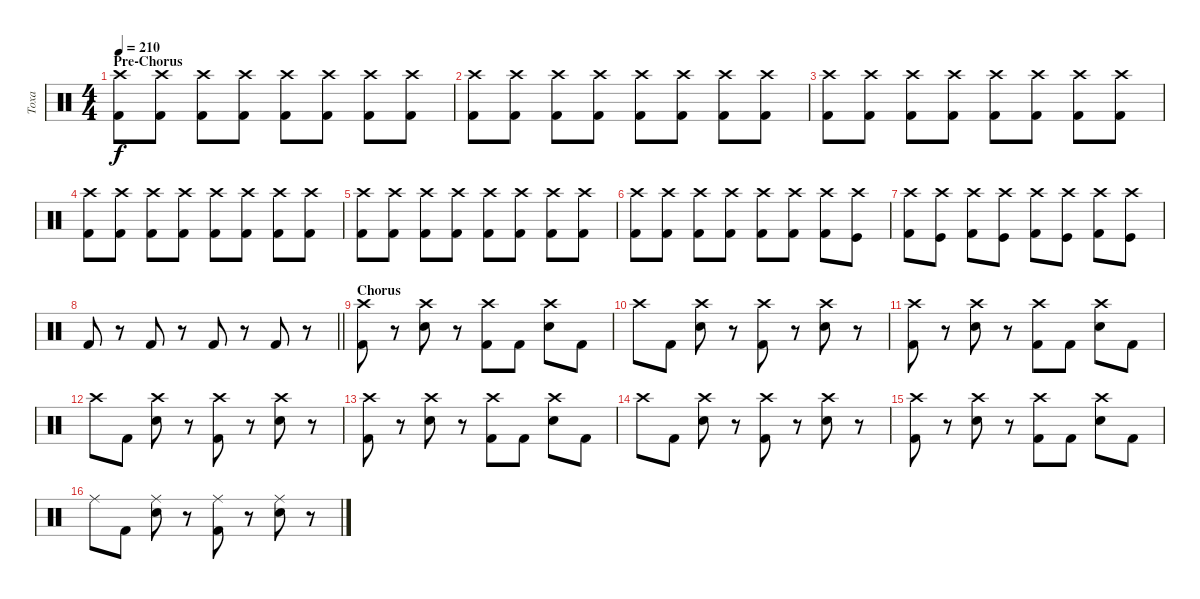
\track ("Toxa" "Toxa") {instrument percussion}
\staff {score}
\articulation defaults
\ts (4 4)
\section ("" "Pre-Chorus")
\tempo 210
\clef neutral
\ks c
("Kick (hit) 2" "Crash high (hit)").8{dy f} ("Crash high (hit)" "Kick (hit) 2").8 ("Crash high (hit)" "Kick (hit) 2").8 ("Crash high (hit)" "Kick (hit) 2").8 ("Crash high (hit)" "Kick (hit) 2").8 ("Crash high (hit)" "Kick (hit) 2").8 ("Crash high (hit)" "Kick (hit) 2").8 ("Crash high (hit)" "Kick (hit) 2").8 |
("Kick (hit) 2" "Crash high (hit)").8 ("Crash high (hit)" "Kick (hit) 2").8 ("Crash high (hit)" "Kick (hit) 2").8 ("Crash high (hit)" "Kick (hit) 2").8 ("Crash high (hit)" "Kick (hit) 2").8 ("Crash high (hit)" "Kick (hit) 2").8 ("Crash high (hit)" "Kick (hit) 2").8 ("Crash high (hit)" "Kick (hit) 2").8 |
("Kick (hit) 2" "Crash high (hit)").8 ("Crash high (hit)" "Kick (hit) 2").8 ("Crash high (hit)" "Kick (hit) 2").8 ("Crash high (hit)" "Kick (hit) 2").8 ("Crash high (hit)" "Kick (hit) 2").8 ("Crash high (hit)" "Kick (hit) 2").8 ("Crash high (hit)" "Kick (hit) 2").8 ("Crash high (hit)" "Kick (hit) 2").8 |
("Kick (hit) 2" "Crash high (hit)").8 ("Crash high (hit)" "Kick (hit) 2").8 ("Crash high (hit)" "Kick (hit) 2").8 ("Crash high (hit)" "Kick (hit) 2").8 ("Crash high (hit)" "Kick (hit) 2").8 ("Crash high (hit)" "Kick (hit) 2").8 ("Crash high (hit)" "Kick (hit) 2").8 ("Crash high (hit)" "Kick (hit) 2").8 |
("Kick (hit) 2" "Crash high (hit)").8 ("Crash high (hit)" "Kick (hit) 2").8 ("Crash high (hit)" "Kick (hit) 2").8 ("Crash high (hit)" "Kick (hit) 2").8 ("Crash high (hit)" "Kick (hit) 2").8 ("Crash high (hit)" "Kick (hit) 2").8 ("Crash high (hit)" "Kick (hit) 2").8 ("Crash high (hit)" "Kick (hit) 2").8 |
("Kick (hit) 2" "Crash high (hit)").8 ("Crash high (hit)" "Kick (hit) 2").8 ("Crash high (hit)" "Kick (hit) 2").8 ("Crash high (hit)" "Kick (hit) 2").8 ("Crash high (hit)" "Kick (hit) 2").8 ("Crash high (hit)" "Kick (hit) 2").8 ("Crash high (hit)" "Kick (hit) 2").8 ("Crash high (hit)" "Kick (hit)").8 |
("Kick (hit) 2" "Crash high (hit)").8 ("Crash high (hit)" "Kick (hit)").8 ("Crash high (hit)" "Kick (hit) 2").8 ("Crash high (hit)" "Kick (hit)").8 ("Crash high (hit)" "Kick (hit) 2").8 ("Crash high (hit)" "Kick (hit)").8 ("Crash high (hit)" "Kick (hit) 2").8 ("Crash high (hit)" "Kick (hit)").8 |
\barLineRight lightlight "Kick (hit) 2".8
r.8 "Kick (hit) 2".8 r.8 "Kick (hit) 2".8 r.8 "Kick (hit) 2".8 r.8 |
\section ("" "Chorus")
("Kick (hit) 2" "Crash high (hit)").8 r.8 ("Snare (hit) 2" "Crash high (hit)").8 r.8 ("Kick (hit) 2" "Crash high (hit)").8 "Kick (hit) 2".8 ("Snare (hit) 2" "Crash high (hit)").8 "Kick (hit) 2".8 |
"Crash high (hit)".8 "Kick (hit) 2".8 ("Snare (hit) 2" "Crash high (hit)").8 r.8 ("Kick (hit) 2" "Crash high (hit)").8 r.8 ("Snare (hit) 2" "Crash high (hit)").8 r.8 |
("Kick (hit) 2" "Crash high (hit)").8 r.8 ("Snare (hit) 2" "Crash high (hit)").8 r.8 ("Kick (hit) 2" "Crash high (hit)").8 "Kick (hit) 2".8 ("Snare (hit) 2" "Crash high (hit)").8 "Kick (hit) 2".8 |
"Crash high (hit)".8 "Kick (hit) 2".8 ("Snare (hit) 2" "Crash high (hit)").8 r.8 ("Kick (hit) 2" "Crash high (hit)").8 r.8 ("Snare (hit) 2" "Crash high (hit)").8 r.8 |
("Kick (hit) 2" "Crash high (hit)").8 r.8 ("Snare (hit) 2" "Crash high (hit)").8 r.8 ("Kick (hit) 2" "Crash high (hit)").8 "Kick (hit) 2".8 ("Snare (hit) 2" "Crash high (hit)").8 "Kick (hit) 2".8 |
"Crash high (hit)".8 "Kick (hit) 2".8 ("Snare (hit) 2" "Crash high (hit)").8 r.8 ("Kick (hit) 2" "Crash high (hit)").8 r.8 ("Snare (hit) 2" "Crash high (hit)").8 r.8 |
("Kick (hit) 2" "Crash high (hit)").8 r.8 ("Snare (hit) 2" "Crash high (hit)").8 r.8 ("Kick (hit) 2" "Crash high (hit)").8 "Kick (hit) 2".8 ("Snare (hit) 2" "Crash high (hit)").8 "Kick (hit) 2".8 |
"Ride (middle)".8 "Kick (hit) 2".8 ("Snare (hit) 2" "Ride (middle)").8 r.8 ("Kick (hit) 2" "Ride (middle)").8 r.8 ("Snare (hit) 2" "Ride (middle)").8 r.8
